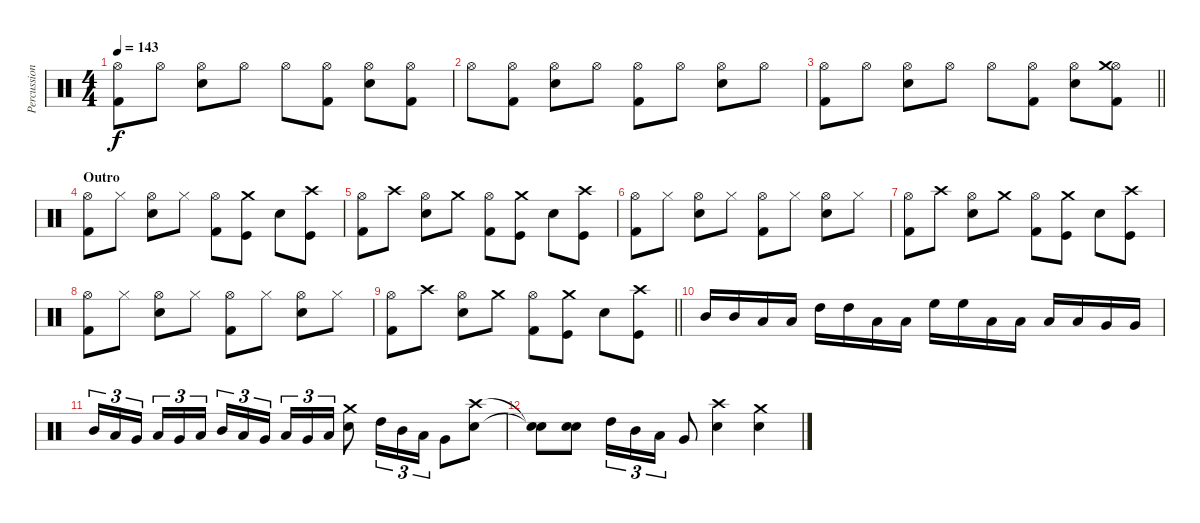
\track ("Percussion" "Percussion") {instrument percussion}
\staff {score}
\articulation defaults
\ts (4 4)
\tempo 143
\clef neutral
\ks c
("Hi-Hat (open)" "Kick (hit) 2").8{dy f} "Hi-Hat (open)".8 ("Hi-Hat (open)" "Snare (hit) 2").8 "Hi-Hat (open)".8 "Hi-Hat (open)".8 ("Hi-Hat (open)" "Kick (hit) 2").8 ("Hi-Hat (open)" "Snare (hit) 2").8 ("Hi-Hat (open)" "Kick (hit) 2").8 |
"Hi-Hat (open)".8 ("Hi-Hat (open)" "Kick (hit) 2").8 ("Hi-Hat (open)" "Snare (hit) 2").8 "Hi-Hat (open)".8 ("Hi-Hat (open)" "Kick (hit) 2").8 "Hi-Hat (open)".8 ("Hi-Hat (open)" "Snare (hit) 2").8 "Hi-Hat (open)".8 |
\barLineRight lightlight
("Hi-Hat (open)" "Kick (hit) 2").8 "Hi-Hat (open)".8 ("Hi-Hat (open)" "Snare (hit) 2").8 "Hi-Hat (open)".8 "Hi-Hat (open)".8 ("Hi-Hat (open)" "Kick (hit) 2").8 ("Hi-Hat (open)" "Snare (hit) 2").8 ("Hi-Hat (open)" "Crash medium (hit)" "Kick (hit) 2").8 |
\section ("" "Outro")
("Hi-Hat (open)" "Kick (hit) 2").8 "Hi-Hat (closed)".8 ("Hi-Hat (open)" "Snare (hit) 2").8 "Hi-Hat (closed)".8 ("Hi-Hat (open)" "Kick (hit) 2").8 ("Crash medium (hit)" "Kick (hit)").8 "Snare (hit) 2".8 ("Crash high (hit)" "Kick (hit)").8 |
("Hi-Hat (open)" "Kick (hit) 2").8 "Crash high (hit)".8 ("Hi-Hat (open)" "Snare (hit) 2").8 "Crash medium (hit)".8 ("Hi-Hat (open)" "Kick (hit) 2").8 ("Crash medium (hit)" "Kick (hit)").8 "Snare (hit) 2".8 ("Crash high (hit)" "Kick (hit)").8 |
("Hi-Hat (open)" "Kick (hit) 2").8 "Hi-Hat (closed)".8 ("Hi-Hat (open)" "Snare (hit) 2").8 "Hi-Hat (closed)".8 ("Hi-Hat (open)" "Kick (hit) 2").8 "Hi-Hat (closed)".8 ("Hi-Hat (open)" "Snare (hit) 2").8 "Hi-Hat (closed)".8 |
("Hi-Hat (open)" "Kick (hit) 2").8 "Crash high (hit)".8 ("Hi-Hat (open)" "Snare (hit) 2").8 "Crash medium (hit)".8 ("Hi-Hat (open)" "Kick (hit) 2").8 ("Crash medium (hit)" "Kick (hit)").8 "Snare (hit) 2".8 ("Crash high (hit)" "Kick (hit)").8 |
("Hi-Hat (open)" "Kick (hit) 2").8 "Hi-Hat (closed)".8 ("Hi-Hat (open)" "Snare (hit) 2").8 "Hi-Hat (closed)".8 ("Hi-Hat (open)" "Kick (hit) 2").8 "Hi-Hat (closed)".8 ("Hi-Hat (open)" "Snare (hit) 2").8 "Hi-Hat (closed)".8 |
\barLineRight lightlight
("Hi-Hat (open)" "Kick (hit) 2").8 "Crash high (hit)".8 ("Hi-Hat (open)" "Snare (hit) 2").8 "Crash medium (hit)".8 ("Hi-Hat (open)" "Kick (hit) 2").8 ("Crash medium (hit)" "Kick (hit)").8 "Snare (hit) 2".8 ("Crash high (hit)" "Kick (hit)").8 |
"Mid Tom (hit)".16 "Mid Tom (hit)".16 "Low Tom (hit)".16 "Low Tom (hit)".16 "High Tom (hit)".16 "High Tom (hit)".16 "Low Tom (hit)".16 "Low Tom (hit)".16 "High Floor Tom (hit)".16 "High Floor Tom (hit)".16 "Low Floor Tom (hit)".16 "Low Floor Tom (hit)".16 "Low Tom (hit)".16 "Low Tom (hit)".16 "Very Low Tom (hit)".16 "Very Low Tom (hit)".16 |
"Mid Tom (hit)".16{tu (3 2)} "Low Tom (hit)".16{tu (3 2)} "Very Low Tom (hit)".16{tu (3 2) beam splitsecondary} "Low Floor Tom (hit)".16{tu (3 2)} "Very Low Tom (hit)".16{tu (3 2)} "Low Tom (hit)".16{tu (3 2)} "Mid Tom (hit)".16{tu (3 2)} "Low Tom (hit)".16{tu (3 2)} "Very Low Tom (hit)".16{tu (3 2) beam splitsecondary} "Low Floor Tom (hit)".16{tu (3 2)} "Very Low Tom (hit)".16{tu (3 2)} "Low Tom (hit)".16{tu (3 2)} ("Crash medium (hit)" "Snare (hit) 2").8 "High Tom (hit)".16{tu (3 2)} "Mid Tom (hit)".16{tu (3 2)} "Low Tom (hit)".16{tu (3 2)} "Very Low Tom (hit)".8 ("Crash high (hit)" "Snare (hit) 2").8 |
("Snare (hit)"{t} "Snare (hit)"{t}).8 ("Electric Snare (hit)" "Snare (hit) 2").8 "High Tom (hit)".16{tu (3 2)} "Mid Tom (hit)".16{tu (3 2)} "Low Tom (hit)".16{tu (3 2)} "Very Low Tom (hit)".8 ("Crash high (hit)" "Snare (hit) 2").4 ("Crash medium (hit)" "Snare (hit) 2").4
